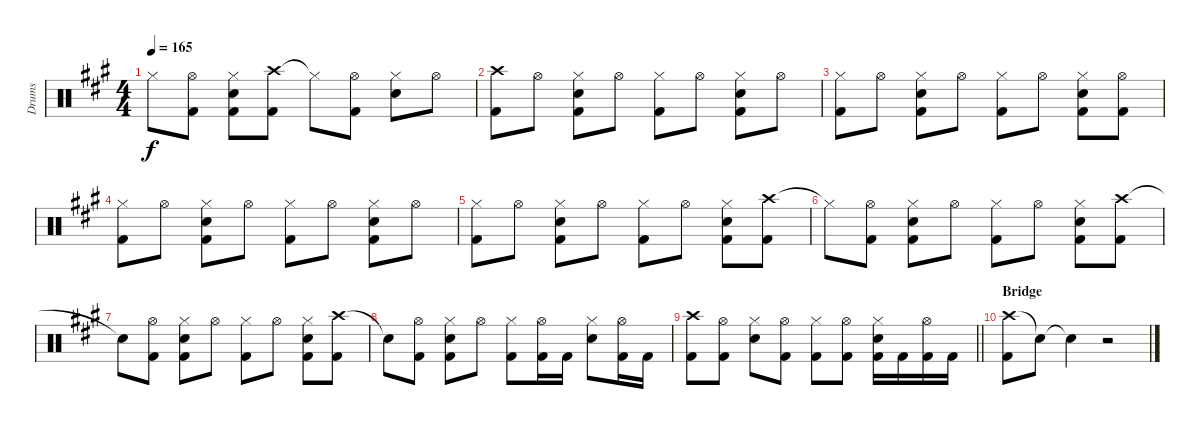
\track ("Drums" "Drums") {instrument percussion}
\staff {score}
\articulation defaults
\ts (4 4)
\tempo 165
\clef neutral
\ks a "Hi-Hat (closed)"{t}.8{dy f}
("Hi-Hat (open)" "Kick (hit) 2").8 ("Hi-Hat (closed)" "Snare (hit) 2" "Kick (hit) 2").8 ("Crash high (hit)" "Kick (hit) 2").8 "Hi-Hat (closed)"{t}.8 ("Hi-Hat (open)" "Kick (hit) 2").8 ("Hi-Hat (closed)" "Snare (hit) 2").8 "Hi-Hat (open)".8 |
("Crash high (hit)" "Kick (hit) 2").8 "Hi-Hat (open)".8 ("Hi-Hat (closed)" "Snare (hit) 2" "Kick (hit) 2").8 "Hi-Hat (open)".8 ("Hi-Hat (closed)" "Kick (hit) 2").8 "Hi-Hat (open)".8 ("Hi-Hat (closed)" "Snare (hit) 2" "Kick (hit) 2").8 "Hi-Hat (open)".8 |
("Hi-Hat (closed)" "Kick (hit) 2").8 "Hi-Hat (open)".8 ("Hi-Hat (closed)" "Snare (hit) 2" "Kick (hit) 2").8 "Hi-Hat (open)".8 ("Hi-Hat (closed)" "Kick (hit) 2").8 "Hi-Hat (open)".8 ("Hi-Hat (closed)" "Snare (hit) 2" "Kick (hit) 2").8 ("Hi-Hat (open)" "Kick (hit) 2").8 |
("Hi-Hat (closed)" "Kick (hit) 2").8 "Hi-Hat (open)".8 ("Hi-Hat (closed)" "Snare (hit) 2" "Kick (hit) 2").8 "Hi-Hat (open)".8 ("Hi-Hat (closed)" "Kick (hit) 2").8 "Hi-Hat (open)".8 ("Hi-Hat (closed)" "Snare (hit) 2" "Kick (hit) 2").8 "Hi-Hat (open)".8 |
("Hi-Hat (closed)" "Kick (hit) 2").8 "Hi-Hat (open)".8 ("Hi-Hat (closed)" "Snare (hit) 2" "Kick (hit) 2").8 "Hi-Hat (open)".8 ("Hi-Hat (closed)" "Kick (hit) 2").8 "Hi-Hat (open)".8 ("Hi-Hat (closed)" "Snare (hit) 2" "Kick (hit) 2").8 ("Crash high (hit)" "Kick (hit) 2").8 |
"Hi-Hat (closed)"{t}.8 ("Hi-Hat (open)" "Kick (hit) 2").8 ("Hi-Hat (closed)" "Snare (hit) 2" "Kick (hit) 2").8 "Hi-Hat (open)".8 ("Hi-Hat (closed)" "Kick (hit) 2").8 "Hi-Hat (open)".8 ("Hi-Hat (closed)" "Snare (hit) 2" "Kick (hit) 2").8 ("Crash high (hit)" "Kick (hit) 2").8 |
"Snare (hit)"{t}.8 ("Hi-Hat (open)" "Kick (hit) 2").8 ("Hi-Hat (closed)" "Snare (hit) 2" "Kick (hit) 2").8 "Hi-Hat (open)".8 ("Hi-Hat (closed)" "Kick (hit) 2").8 "Hi-Hat (open)".8 ("Hi-Hat (closed)" "Snare (hit) 2" "Kick (hit) 2").8 ("Crash high (hit)" "Kick (hit) 2").8 |
"Snare (hit)"{t}.8 ("Hi-Hat (open)" "Kick (hit) 2").8 ("Hi-Hat (closed)" "Snare (hit) 2" "Kick (hit) 2").8 "Hi-Hat (open)".8 ("Hi-Hat (closed)" "Kick (hit) 2").8 ("Hi-Hat (open)" "Kick (hit) 2").16 "Kick (hit) 2".16 ("Hi-Hat (closed)" "Snare (hit) 2").8 ("Hi-Hat (open)" "Kick (hit) 2").16 "Kick (hit) 2".16 |
\barLineRight lightlight
("Crash high (hit)" "Kick (hit) 2").8 ("Hi-Hat (open)" "Kick (hit) 2").8 ("Hi-Hat (closed)" "Snare (hit) 2").8 ("Hi-Hat (open)" "Kick (hit) 2").8 ("Hi-Hat (closed)" "Kick (hit) 2").8 ("Hi-Hat (open)" "Kick (hit) 2").8 ("Hi-Hat (closed)" "Snare (hit) 2" "Kick (hit) 2").16 "Kick (hit) 2".16 ("Hi-Hat (open)" "Kick (hit) 2").16 "Kick (hit) 2".16 |
\section ("" "Bridge")
("Crash high (hit)" "Kick (hit) 2").8 "Snare (hit)"{t}.8 "Snare (hit)"{t}.4 r.2
